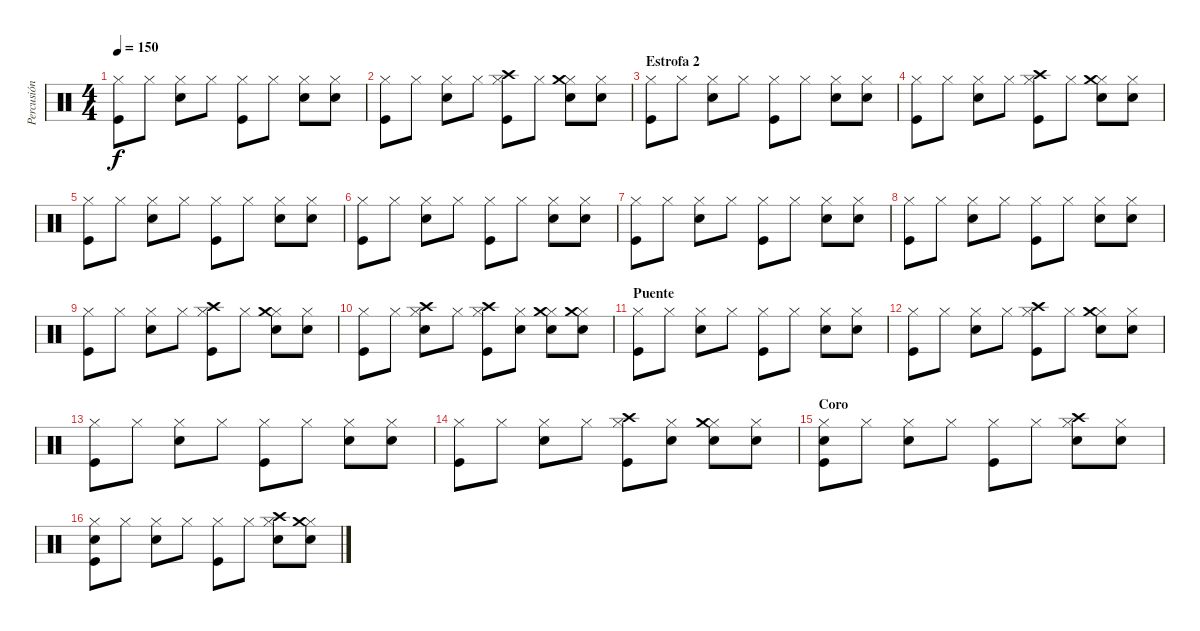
\track ("Percusión" "Percusión") {instrument percussion}
\staff {score}
\articulation defaults
\ts (4 4)
\tempo 150
\clef neutral
\ks c
("Hi-Hat (closed)" "Kick (hit)").8{dy f} "Hi-Hat (closed)".8 ("Hi-Hat (closed)" "Snare (hit) 2").8 "Hi-Hat (closed)".8 ("Hi-Hat (closed)" "Kick (hit)").8 "Hi-Hat (closed)".8 ("Hi-Hat (closed)" "Snare (hit) 2").8 ("Hi-Hat (closed)" "Snare (hit) 2").8 |
("Hi-Hat (closed)" "Kick (hit)").8 "Hi-Hat (closed)".8 ("Hi-Hat (closed)" "Snare (hit) 2").8 "Hi-Hat (closed)".8 ("Hi-Hat (closed)" "Kick (hit)" "Crash high (hit)").8 "Hi-Hat (closed)".8 ("Hi-Hat (closed)" "Snare (hit) 2" "Crash medium (hit)").8 ("Hi-Hat (closed)" "Snare (hit) 2").8 |
\section ("" "Estrofa 2")
("Hi-Hat (closed)" "Kick (hit)").8 "Hi-Hat (closed)".8 ("Hi-Hat (closed)" "Snare (hit) 2").8 "Hi-Hat (closed)".8 ("Hi-Hat (closed)" "Kick (hit)").8 "Hi-Hat (closed)".8 ("Hi-Hat (closed)" "Snare (hit) 2").8 ("Hi-Hat (closed)" "Snare (hit) 2").8 |
("Hi-Hat (closed)" "Kick (hit)").8 "Hi-Hat (closed)".8 ("Hi-Hat (closed)" "Snare (hit) 2").8 "Hi-Hat (closed)".8 ("Hi-Hat (closed)" "Kick (hit)" "Crash high (hit)").8 "Hi-Hat (closed)".8 ("Hi-Hat (closed)" "Snare (hit) 2" "Crash medium (hit)").8 ("Hi-Hat (closed)" "Snare (hit) 2").8 |
("Hi-Hat (closed)" "Kick (hit)").8 "Hi-Hat (closed)".8 ("Hi-Hat (closed)" "Snare (hit) 2").8 "Hi-Hat (closed)".8 ("Hi-Hat (closed)" "Kick (hit)").8 "Hi-Hat (closed)".8 ("Hi-Hat (closed)" "Snare (hit) 2").8 ("Hi-Hat (closed)" "Snare (hit) 2").8 |
("Hi-Hat (closed)" "Kick (hit)").8 "Hi-Hat (closed)".8 ("Hi-Hat (closed)" "Snare (hit) 2").8 "Hi-Hat (closed)".8 ("Hi-Hat (closed)" "Kick (hit)").8 "Hi-Hat (closed)".8 ("Hi-Hat (closed)" "Snare (hit) 2").8 ("Hi-Hat (closed)" "Snare (hit) 2").8 |
("Hi-Hat (closed)" "Kick (hit)").8 "Hi-Hat (closed)".8 ("Hi-Hat (closed)" "Snare (hit) 2").8 "Hi-Hat (closed)".8 ("Hi-Hat (closed)" "Kick (hit)").8 "Hi-Hat (closed)".8 ("Hi-Hat (closed)" "Snare (hit) 2").8 ("Hi-Hat (closed)" "Snare (hit) 2").8 |
("Hi-Hat (closed)" "Kick (hit)").8 "Hi-Hat (closed)".8 ("Hi-Hat (closed)" "Snare (hit) 2").8 "Hi-Hat (closed)".8 ("Hi-Hat (closed)" "Kick (hit)").8 "Hi-Hat (closed)".8 ("Hi-Hat (closed)" "Snare (hit) 2").8 ("Hi-Hat (closed)" "Snare (hit) 2").8 |
("Hi-Hat (closed)" "Kick (hit)").8 "Hi-Hat (closed)".8 ("Hi-Hat (closed)" "Snare (hit) 2").8 "Hi-Hat (closed)".8 ("Hi-Hat (closed)" "Kick (hit)" "Crash high (hit)").8 "Hi-Hat (closed)".8 ("Hi-Hat (closed)" "Snare (hit) 2" "Crash medium (hit)").8 ("Hi-Hat (closed)" "Snare (hit) 2").8 |
("Hi-Hat (closed)" "Kick (hit)").8 "Hi-Hat (closed)".8 ("Hi-Hat (closed)" "Snare (hit) 2" "Crash high (hit)").8 "Hi-Hat (closed)".8 ("Hi-Hat (closed)" "Kick (hit)" "Crash high (hit)").8 ("Hi-Hat (closed)" "Snare (hit) 2").8 ("Hi-Hat (closed)" "Snare (hit) 2" "Crash medium (hit)").8 ("Hi-Hat (closed)" "Snare (hit) 2" "Crash medium (hit)").8 |
\section ("" "Puente")
("Hi-Hat (closed)" "Kick (hit)").8 "Hi-Hat (closed)".8 ("Hi-Hat (closed)" "Snare (hit) 2").8 "Hi-Hat (closed)".8 ("Hi-Hat (closed)" "Kick (hit)").8 "Hi-Hat (closed)".8 ("Hi-Hat (closed)" "Snare (hit) 2").8 ("Hi-Hat (closed)" "Snare (hit) 2").8 |
("Hi-Hat (closed)" "Kick (hit)").8 "Hi-Hat (closed)".8 ("Hi-Hat (closed)" "Snare (hit) 2").8 "Hi-Hat (closed)".8 ("Hi-Hat (closed)" "Kick (hit)" "Crash high (hit)").8 "Hi-Hat (closed)".8 ("Hi-Hat (closed)" "Snare (hit) 2" "Crash medium (hit)").8 ("Hi-Hat (closed)" "Snare (hit) 2").8 |
("Hi-Hat (closed)" "Kick (hit)").8 "Hi-Hat (closed)".8 ("Hi-Hat (closed)" "Snare (hit) 2").8 "Hi-Hat (closed)".8 ("Hi-Hat (closed)" "Kick (hit)").8 "Hi-Hat (closed)".8 ("Hi-Hat (closed)" "Snare (hit) 2").8 ("Hi-Hat (closed)" "Snare (hit) 2").8 |
("Hi-Hat (closed)" "Kick (hit)").8 "Hi-Hat (closed)".8 ("Hi-Hat (closed)" "Snare (hit) 2").8 "Hi-Hat (closed)".8 ("Hi-Hat (closed)" "Kick (hit)" "Crash high (hit)").8 ("Hi-Hat (closed)" "Snare (hit) 2").8 ("Hi-Hat (closed)" "Snare (hit) 2" "Crash medium (hit)").8 ("Hi-Hat (closed)" "Snare (hit) 2").8 |
\section ("" "Coro")
("Hi-Hat (closed)" "Snare (hit) 2" "Kick (hit)").8 "Hi-Hat (closed)".8 ("Hi-Hat (closed)" "Snare (hit) 2").8 "Hi-Hat (closed)".8 ("Hi-Hat (closed)" "Kick (hit)").8 "Hi-Hat (closed)".8 ("Hi-Hat (closed)" "Snare (hit) 2" "Crash high (hit)").8 ("Hi-Hat (closed)" "Snare (hit) 2").8 |
("Hi-Hat (closed)" "Snare (hit) 2" "Kick (hit)").8 "Hi-Hat (closed)".8 ("Hi-Hat (closed)" "Snare (hit) 2").8 "Hi-Hat (closed)".8 ("Hi-Hat (closed)" "Kick (hit)").8 "Hi-Hat (closed)".8 ("Hi-Hat (closed)" "Snare (hit) 2" "Crash high (hit)").8 ("Hi-Hat (closed)" "Snare (hit) 2" "Crash medium (hit)").8
